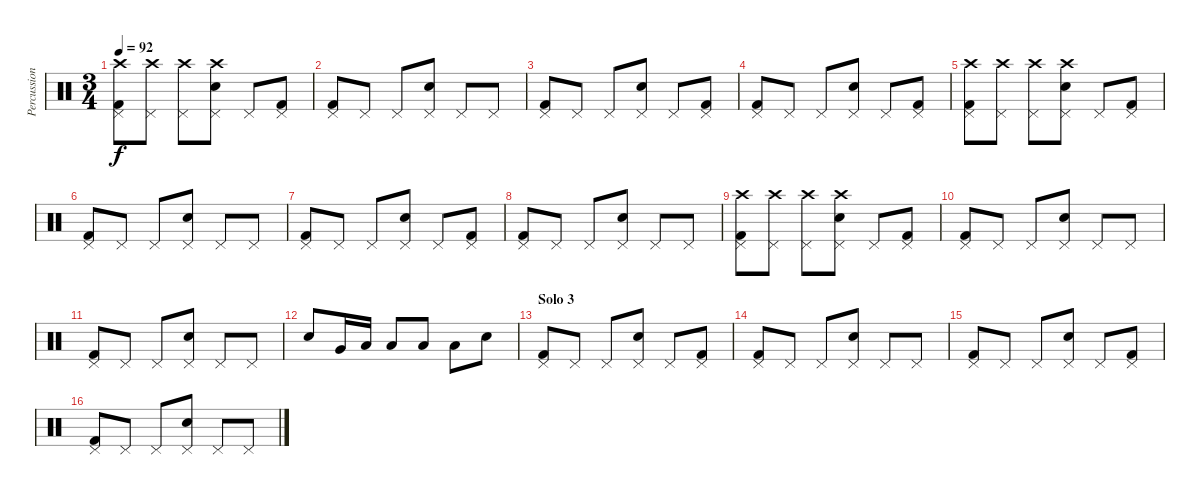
\track ("Percussion" "Percussion") {instrument percussion}
\staff {score}
\articulation defaults
\ts (3 4)
\tempo 92
\clef neutral
\ks c
("Pedal Hi-Hat (hit)" "Kick (hit) 2" "Crash high (hit)").8{dy f} ("Pedal Hi-Hat (hit)" "Crash high (hit)").8 ("Pedal Hi-Hat (hit)" "Crash high (hit)").8 ("Pedal Hi-Hat (hit)" "Electric Snare (hit)" "Crash high (hit)").8 "Pedal Hi-Hat (hit)".8 ("Pedal Hi-Hat (hit)" "Kick (hit) 2").8 |
("Pedal Hi-Hat (hit)" "Kick (hit) 2").8 "Pedal Hi-Hat (hit)".8 "Pedal Hi-Hat (hit)".8 ("Pedal Hi-Hat (hit)" "Electric Snare (hit)").8 "Pedal Hi-Hat (hit)".8 "Pedal Hi-Hat (hit)".8 |
("Pedal Hi-Hat (hit)" "Kick (hit) 2").8 "Pedal Hi-Hat (hit)".8 "Pedal Hi-Hat (hit)".8 ("Pedal Hi-Hat (hit)" "Electric Snare (hit)").8 "Pedal Hi-Hat (hit)".8 ("Pedal Hi-Hat (hit)" "Kick (hit) 2").8 |
("Pedal Hi-Hat (hit)" "Kick (hit) 2").8 "Pedal Hi-Hat (hit)".8 "Pedal Hi-Hat (hit)".8 ("Pedal Hi-Hat (hit)" "Electric Snare (hit)").8 "Pedal Hi-Hat (hit)".8 ("Pedal Hi-Hat (hit)" "Kick (hit) 2").8 |
("Pedal Hi-Hat (hit)" "Kick (hit) 2" "Crash high (hit)").8 ("Pedal Hi-Hat (hit)" "Crash high (hit)").8 ("Pedal Hi-Hat (hit)" "Crash high (hit)").8 ("Pedal Hi-Hat (hit)" "Electric Snare (hit)" "Crash high (hit)").8 "Pedal Hi-Hat (hit)".8 ("Pedal Hi-Hat (hit)" "Kick (hit) 2").8 |
("Pedal Hi-Hat (hit)" "Kick (hit) 2").8 "Pedal Hi-Hat (hit)".8 "Pedal Hi-Hat (hit)".8 ("Pedal Hi-Hat (hit)" "Electric Snare (hit)").8 "Pedal Hi-Hat (hit)".8 "Pedal Hi-Hat (hit)".8 |
("Pedal Hi-Hat (hit)" "Kick (hit) 2").8 "Pedal Hi-Hat (hit)".8 "Pedal Hi-Hat (hit)".8 ("Pedal Hi-Hat (hit)" "Electric Snare (hit)").8 "Pedal Hi-Hat (hit)".8 ("Pedal Hi-Hat (hit)" "Kick (hit) 2").8 |
("Pedal Hi-Hat (hit)" "Kick (hit) 2").8 "Pedal Hi-Hat (hit)".8 "Pedal Hi-Hat (hit)".8 ("Pedal Hi-Hat (hit)" "Electric Snare (hit)").8 "Pedal Hi-Hat (hit)".8 "Pedal Hi-Hat (hit)".8 |
("Pedal Hi-Hat (hit)" "Kick (hit) 2" "Crash high (hit)").8 ("Pedal Hi-Hat (hit)" "Crash high (hit)").8 ("Pedal Hi-Hat (hit)" "Crash high (hit)").8 ("Pedal Hi-Hat (hit)" "Electric Snare (hit)" "Crash high (hit)").8 "Pedal Hi-Hat (hit)".8 ("Pedal Hi-Hat (hit)" "Kick (hit) 2").8 |
("Pedal Hi-Hat (hit)" "Kick (hit) 2").8 "Pedal Hi-Hat (hit)".8 "Pedal Hi-Hat (hit)".8 ("Pedal Hi-Hat (hit)" "Electric Snare (hit)").8 "Pedal Hi-Hat (hit)".8 "Pedal Hi-Hat (hit)".8 |
("Pedal Hi-Hat (hit)" "Kick (hit) 2").8 "Pedal Hi-Hat (hit)".8 "Pedal Hi-Hat (hit)".8 ("Pedal Hi-Hat (hit)" "Electric Snare (hit)").8 "Pedal Hi-Hat (hit)".8 "Pedal Hi-Hat (hit)".8 |
"Electric Snare (hit)".8 "Very Low Tom (hit)".16 "Low Tom (hit)".16 "Low Tom (hit)".8 "Low Tom (hit)".8 "Low Tom (hit)".8 "Snare (hit)".8 |
\section ("" "Solo 3")
("Pedal Hi-Hat (hit)" "Kick (hit) 2").8 "Pedal Hi-Hat (hit)".8 "Pedal Hi-Hat (hit)".8 ("Pedal Hi-Hat (hit)" "Electric Snare (hit)").8 "Pedal Hi-Hat (hit)".8 ("Pedal Hi-Hat (hit)" "Kick (hit) 2").8 |
("Pedal Hi-Hat (hit)" "Kick (hit) 2").8 "Pedal Hi-Hat (hit)".8 "Pedal Hi-Hat (hit)".8 ("Pedal Hi-Hat (hit)" "Electric Snare (hit)").8 "Pedal Hi-Hat (hit)".8 "Pedal Hi-Hat (hit)".8 |
("Pedal Hi-Hat (hit)" "Kick (hit) 2").8 "Pedal Hi-Hat (hit)".8 "Pedal Hi-Hat (hit)".8 ("Pedal Hi-Hat (hit)" "Electric Snare (hit)").8 "Pedal Hi-Hat (hit)".8 ("Pedal Hi-Hat (hit)" "Kick (hit) 2").8 |
("Pedal Hi-Hat (hit)" "Kick (hit) 2").8 "Pedal Hi-Hat (hit)".8 "Pedal Hi-Hat (hit)".8 ("Pedal Hi-Hat (hit)" "Electric Snare (hit)").8 "Pedal Hi-Hat (hit)".8 "Pedal Hi-Hat (hit)".8
